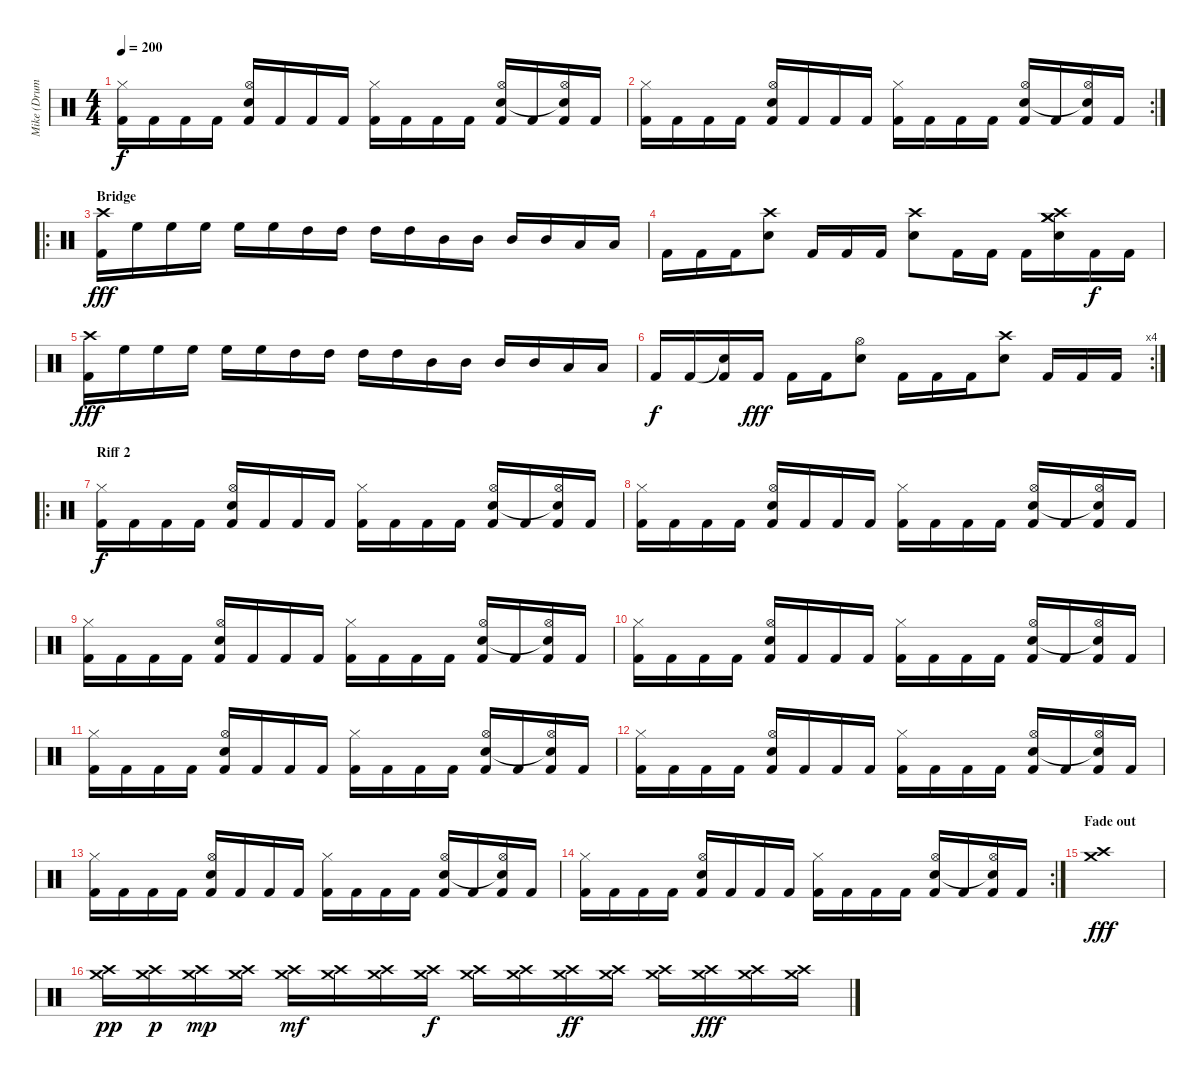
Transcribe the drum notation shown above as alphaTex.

\track ("Mike (Drums)" "Mike (Drum") {instrument percussion}
\staff {score}
\articulation defaults
\ts (4 4)
\tempo 200
\clef neutral
\ks c
("Hi-Hat (closed)" "Kick (hit) 2").16{dy f} "Kick (hit) 2".16 "Kick (hit) 2".16 "Kick (hit) 2".16 ("Hi-Hat (open)" "Snare (hit) 2" "Kick (hit) 2").16 "Kick (hit) 2".16 "Kick (hit) 2".16 "Kick (hit) 2".16 ("Hi-Hat (closed)" "Kick (hit) 2").16 "Kick (hit) 2".16 "Kick (hit) 2".16 "Kick (hit) 2".16 ("Hi-Hat (open)" "Snare (hit) 2" "Kick (hit) 2").16 "Kick (hit) 2".16 ("Hi-Hat (open)" "Snare (hit)"{t} "Kick (hit) 2").16 "Kick (hit) 2".16 |
\rc 2
("Hi-Hat (closed)" "Kick (hit) 2").16 "Kick (hit) 2".16 "Kick (hit) 2".16 "Kick (hit) 2".16 ("Hi-Hat (open)" "Snare (hit) 2" "Kick (hit) 2").16 "Kick (hit) 2".16 "Kick (hit) 2".16 "Kick (hit) 2".16 ("Hi-Hat (closed)" "Kick (hit) 2").16 "Kick (hit) 2".16 "Kick (hit) 2".16 "Kick (hit) 2".16 ("Hi-Hat (open)" "Snare (hit) 2" "Kick (hit) 2").16 "Kick (hit) 2".16 ("Hi-Hat (open)" "Snare (hit)"{t} "Kick (hit) 2").16 "Kick (hit) 2".16 |
\ro
\section ("" "Bridge")
("Crash high (hit)" "Kick (hit) 2").16{dy fff} "High Floor Tom (hit)".16 "High Floor Tom (hit)".16 "High Floor Tom (hit)".16 "High Floor Tom (hit)".16 "High Floor Tom (hit)".16 "High Tom (hit)".16 "High Tom (hit)".16 "High Tom (hit)".16 "High Tom (hit)".16 "Mid Tom (hit)".16 "Mid Tom (hit)".16 "Mid Tom (hit)".16 "Mid Tom (hit)".16 "Low Tom (hit)".16 "Low Tom (hit)".16 |
"Kick (hit) 2".16 "Kick (hit) 2".16 "Kick (hit) 2".16 ("Snare (hit) 2" "Crash high (hit)").8 "Kick (hit) 2".16 "Kick (hit) 2".16 "Kick (hit) 2".16 ("Snare (hit) 2" "Crash high (hit)").8 "Kick (hit) 2".16 "Kick (hit) 2".16 "Kick (hit) 2".16 ("Crash high (hit)" "Crash medium (hit)" "Snare (hit) 2" "Crash medium (hit)").16 "Kick (hit) 2".16{dy f} "Kick (hit) 2".16 |
("Crash high (hit)" "Kick (hit) 2").16{dy fff} "High Floor Tom (hit)".16 "High Floor Tom (hit)".16 "High Floor Tom (hit)".16 "High Floor Tom (hit)".16 "High Floor Tom (hit)".16 "High Tom (hit)".16 "High Tom (hit)".16 "High Tom (hit)".16 "High Tom (hit)".16 "Mid Tom (hit)".16 "Mid Tom (hit)".16 "Mid Tom (hit)".16 "Mid Tom (hit)".16 "Low Tom (hit)".16 "Low Tom (hit)".16 |
\rc 4 "Kick (hit) 2".16{dy f} "Kick (hit) 2".16
("Snare (hit)"{t} "Kick (hit) 2").16 "Kick (hit) 2".16{dy fff} "Kick (hit) 2".16 "Kick (hit) 2".16 ("Snare (hit) 2" "Hi-Hat (open)").8 "Kick (hit) 2".16 "Kick (hit) 2".16 "Kick (hit) 2".16 ("Snare (hit) 2" "Crash high (hit)").8 "Kick (hit) 2".16 "Kick (hit) 2".16 "Kick (hit) 2".16 |
\ro
\section ("" "Riff 2")
("Hi-Hat (closed)" "Kick (hit) 2").16{dy f} "Kick (hit) 2".16 "Kick (hit) 2".16 "Kick (hit) 2".16 ("Hi-Hat (open)" "Snare (hit) 2" "Kick (hit) 2").16 "Kick (hit) 2".16 "Kick (hit) 2".16 "Kick (hit) 2".16 ("Hi-Hat (closed)" "Kick (hit) 2").16 "Kick (hit) 2".16 "Kick (hit) 2".16 "Kick (hit) 2".16 ("Hi-Hat (open)" "Snare (hit) 2" "Kick (hit) 2").16 "Kick (hit) 2".16 ("Hi-Hat (open)" "Snare (hit)"{t} "Kick (hit) 2").16 "Kick (hit) 2".16 |
("Hi-Hat (closed)" "Kick (hit) 2").16 "Kick (hit) 2".16 "Kick (hit) 2".16 "Kick (hit) 2".16 ("Hi-Hat (open)" "Snare (hit) 2" "Kick (hit) 2").16 "Kick (hit) 2".16 "Kick (hit) 2".16 "Kick (hit) 2".16 ("Hi-Hat (closed)" "Kick (hit) 2").16 "Kick (hit) 2".16 "Kick (hit) 2".16 "Kick (hit) 2".16 ("Hi-Hat (open)" "Snare (hit) 2" "Kick (hit) 2").16 "Kick (hit) 2".16 ("Hi-Hat (open)" "Snare (hit)"{t} "Kick (hit) 2").16 "Kick (hit) 2".16 |
("Hi-Hat (closed)" "Kick (hit) 2").16 "Kick (hit) 2".16 "Kick (hit) 2".16 "Kick (hit) 2".16 ("Hi-Hat (open)" "Snare (hit) 2" "Kick (hit) 2").16 "Kick (hit) 2".16 "Kick (hit) 2".16 "Kick (hit) 2".16 ("Hi-Hat (closed)" "Kick (hit) 2").16 "Kick (hit) 2".16 "Kick (hit) 2".16 "Kick (hit) 2".16 ("Hi-Hat (open)" "Snare (hit) 2" "Kick (hit) 2").16 "Kick (hit) 2".16 ("Hi-Hat (open)" "Snare (hit)"{t} "Kick (hit) 2").16 "Kick (hit) 2".16 |
("Hi-Hat (closed)" "Kick (hit) 2").16 "Kick (hit) 2".16 "Kick (hit) 2".16 "Kick (hit) 2".16 ("Hi-Hat (open)" "Snare (hit) 2" "Kick (hit) 2").16 "Kick (hit) 2".16 "Kick (hit) 2".16 "Kick (hit) 2".16 ("Hi-Hat (closed)" "Kick (hit) 2").16 "Kick (hit) 2".16 "Kick (hit) 2".16 "Kick (hit) 2".16 ("Hi-Hat (open)" "Snare (hit) 2" "Kick (hit) 2").16 "Kick (hit) 2".16 ("Hi-Hat (open)" "Snare (hit)"{t} "Kick (hit) 2").16 "Kick (hit) 2".16 |
("Hi-Hat (closed)" "Kick (hit) 2").16 "Kick (hit) 2".16 "Kick (hit) 2".16 "Kick (hit) 2".16 ("Hi-Hat (open)" "Snare (hit) 2" "Kick (hit) 2").16 "Kick (hit) 2".16 "Kick (hit) 2".16 "Kick (hit) 2".16 ("Hi-Hat (closed)" "Kick (hit) 2").16 "Kick (hit) 2".16 "Kick (hit) 2".16 "Kick (hit) 2".16 ("Hi-Hat (open)" "Snare (hit) 2" "Kick (hit) 2").16 "Kick (hit) 2".16 ("Hi-Hat (open)" "Snare (hit)"{t} "Kick (hit) 2").16 "Kick (hit) 2".16 |
("Hi-Hat (closed)" "Kick (hit) 2").16 "Kick (hit) 2".16 "Kick (hit) 2".16 "Kick (hit) 2".16 ("Hi-Hat (open)" "Snare (hit) 2" "Kick (hit) 2").16 "Kick (hit) 2".16 "Kick (hit) 2".16 "Kick (hit) 2".16 ("Hi-Hat (closed)" "Kick (hit) 2").16 "Kick (hit) 2".16 "Kick (hit) 2".16 "Kick (hit) 2".16 ("Hi-Hat (open)" "Snare (hit) 2" "Kick (hit) 2").16 "Kick (hit) 2".16 ("Hi-Hat (open)" "Snare (hit)"{t} "Kick (hit) 2").16 "Kick (hit) 2".16 |
("Hi-Hat (closed)" "Kick (hit) 2").16 "Kick (hit) 2".16 "Kick (hit) 2".16 "Kick (hit) 2".16 ("Hi-Hat (open)" "Snare (hit) 2" "Kick (hit) 2").16 "Kick (hit) 2".16 "Kick (hit) 2".16 "Kick (hit) 2".16 ("Hi-Hat (closed)" "Kick (hit) 2").16 "Kick (hit) 2".16 "Kick (hit) 2".16 "Kick (hit) 2".16 ("Hi-Hat (open)" "Snare (hit) 2" "Kick (hit) 2").16 "Kick (hit) 2".16 ("Hi-Hat (open)" "Snare (hit)"{t} "Kick (hit) 2").16 "Kick (hit) 2".16 |
\rc 2
("Hi-Hat (closed)" "Kick (hit) 2").16 "Kick (hit) 2".16 "Kick (hit) 2".16 "Kick (hit) 2".16 ("Hi-Hat (open)" "Snare (hit) 2" "Kick (hit) 2").16 "Kick (hit) 2".16 "Kick (hit) 2".16 "Kick (hit) 2".16 ("Hi-Hat (closed)" "Kick (hit) 2").16 "Kick (hit) 2".16 "Kick (hit) 2".16 "Kick (hit) 2".16 ("Hi-Hat (open)" "Snare (hit) 2" "Kick (hit) 2").16 "Kick (hit) 2".16 ("Hi-Hat (open)" "Snare (hit)"{t} "Kick (hit) 2").16 "Kick (hit) 2".16 |
\section ("" "Fade out")
("Crash high (hit)" "Crash medium (hit)").1{dy fff} |
("Crash high (hit)" "Crash medium (hit)").16{dy pp} ("Crash high (hit)" "Crash medium (hit)").16{dy p} ("Crash high (hit)" "Crash medium (hit)").16{dy mp} ("Crash high (hit)" "Crash medium (hit)").16 ("Crash high (hit)" "Crash medium (hit)").16{dy mf} ("Crash high (hit)" "Crash medium (hit)").16 ("Crash high (hit)" "Crash medium (hit)").16 ("Crash high (hit)" "Crash medium (hit)").16{dy f} ("Crash high (hit)" "Crash medium (hit)").16 ("Crash high (hit)" "Crash medium (hit)").16 ("Crash high (hit)" "Crash medium (hit)").16{dy ff} ("Crash high (hit)" "Crash medium (hit)").16 ("Crash high (hit)" "Crash medium (hit)").16 ("Crash high (hit)" "Crash medium (hit)").16{dy fff} ("Crash high (hit)" "Crash medium (hit)").16 ("Crash high (hit)" "Crash medium (hit)").16
